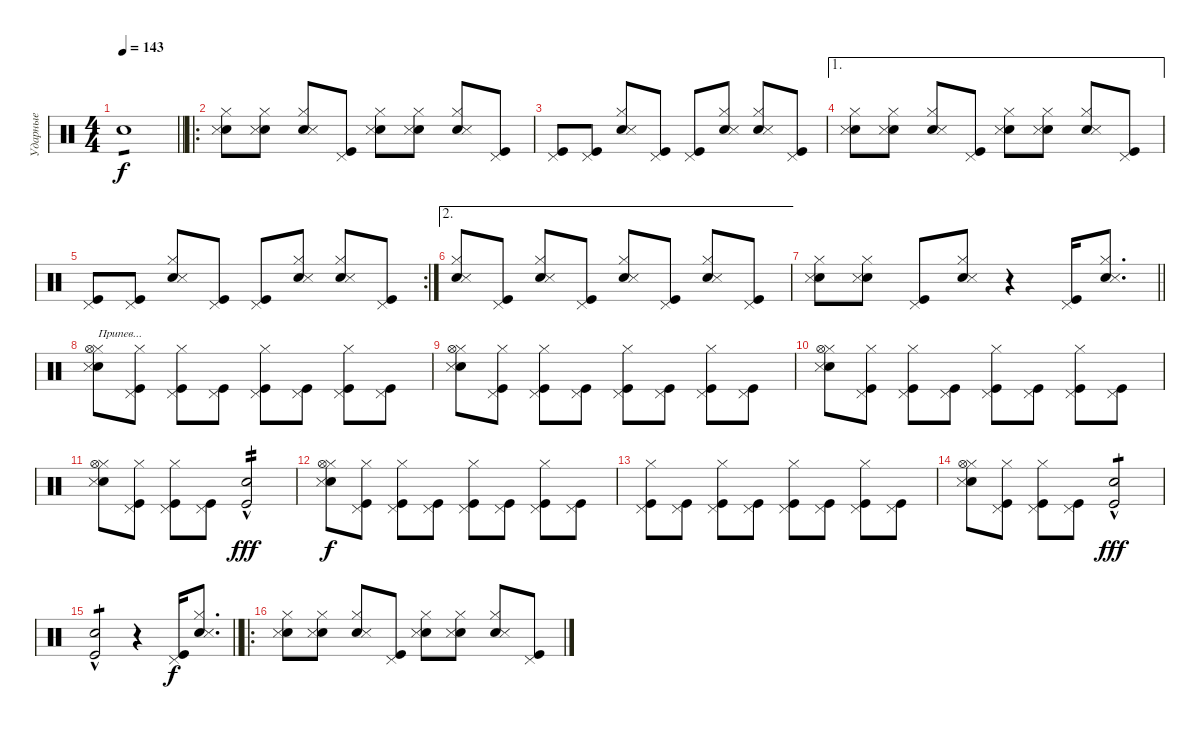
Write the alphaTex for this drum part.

\track ("Ударные" "Ударные") {instrument percussion}
\staff {score}
\articulation defaults
\ts (4 4)
\tempo 143
\clef neutral
\barLineRight lightlight
\ks c "Snare (hit) 2".1{tp 1 dy f}
|
\ro
("Snare (hit) 2" "Hi-Hat (closed)" "Snare (side stick) 3").8 ("Snare (hit) 2" "Hi-Hat (closed)" "Snare (side stick) 3").8 ("Snare (hit) 2" "Hi-Hat (closed)" "Snare (side stick) 3").8 ("Kick (hit)" "Pedal Hi-Hat (hit)").8 ("Snare (hit) 2" "Hi-Hat (closed)" "Snare (side stick) 3").8 ("Snare (hit) 2" "Hi-Hat (closed)" "Snare (side stick) 3").8 ("Snare (hit) 2" "Hi-Hat (closed)" "Snare (side stick) 3").8 ("Kick (hit)" "Pedal Hi-Hat (hit)").8 |
("Kick (hit)" "Pedal Hi-Hat (hit)").8 ("Kick (hit)" "Pedal Hi-Hat (hit)").8 ("Snare (hit) 2" "Hi-Hat (closed)" "Snare (side stick) 3").8 ("Kick (hit)" "Pedal Hi-Hat (hit)").8 ("Kick (hit)" "Pedal Hi-Hat (hit)").8 ("Snare (hit) 2" "Hi-Hat (closed)" "Snare (side stick) 3").8 ("Snare (hit) 2" "Hi-Hat (closed)" "Snare (side stick) 3").8 ("Kick (hit)" "Pedal Hi-Hat (hit)").8 |
\ae 1
("Snare (hit) 2" "Hi-Hat (closed)" "Snare (side stick) 3").8 ("Snare (hit) 2" "Hi-Hat (closed)" "Snare (side stick) 3").8 ("Snare (hit) 2" "Hi-Hat (closed)" "Snare (side stick) 3").8 ("Kick (hit)" "Pedal Hi-Hat (hit)").8 ("Snare (hit) 2" "Hi-Hat (closed)" "Snare (side stick) 3").8 ("Snare (hit) 2" "Hi-Hat (closed)" "Snare (side stick) 3").8 ("Snare (hit) 2" "Hi-Hat (closed)" "Snare (side stick) 3").8 ("Kick (hit)" "Pedal Hi-Hat (hit)").8 |
\rc 2
("Kick (hit)" "Pedal Hi-Hat (hit)").8 ("Kick (hit)" "Pedal Hi-Hat (hit)").8 ("Snare (hit) 2" "Hi-Hat (closed)" "Snare (side stick) 3").8 ("Kick (hit)" "Pedal Hi-Hat (hit)").8 ("Kick (hit)" "Pedal Hi-Hat (hit)").8 ("Snare (hit) 2" "Hi-Hat (closed)" "Snare (side stick) 3").8 ("Snare (hit) 2" "Hi-Hat (closed)" "Snare (side stick) 3").8 ("Kick (hit)" "Pedal Hi-Hat (hit)").8 |
\ae 2
("Snare (hit) 2" "Hi-Hat (closed)" "Snare (side stick) 3").8 ("Kick (hit)" "Pedal Hi-Hat (hit)").8 ("Snare (hit) 2" "Hi-Hat (closed)" "Snare (side stick) 3").8 ("Kick (hit)" "Pedal Hi-Hat (hit)").8 ("Snare (hit) 2" "Hi-Hat (closed)" "Snare (side stick) 3").8 ("Kick (hit)" "Pedal Hi-Hat (hit)").8 ("Snare (hit) 2" "Hi-Hat (closed)" "Snare (side stick) 3").8 ("Kick (hit)" "Pedal Hi-Hat (hit)").8 |
\barLineRight lightlight
("Snare (hit) 2" "Hi-Hat (closed)" "Snare (side stick) 3").8 ("Snare (hit) 2" "Hi-Hat (closed)" "Snare (side stick) 3").8 ("Kick (hit)" "Pedal Hi-Hat (hit)").8 ("Snare (hit) 2" "Hi-Hat (closed)" "Snare (side stick) 3").8 r.4 ("Kick (hit)" "Pedal Hi-Hat (hit)").16 ("Snare (hit) 2" "Hi-Hat (closed)" "Snare (side stick) 3").8{d} |
("Snare (hit) 2" "Hi-Hat (closed)" "Snare (side stick) 3" "Hi-Hat (open)").8{txt "Припев..."} ("Kick (hit)" "Pedal Hi-Hat (hit)" "Hi-Hat (closed)").8 ("Kick (hit)" "Pedal Hi-Hat (hit)" "Hi-Hat (closed)").8 ("Kick (hit)" "Pedal Hi-Hat (hit)").8 ("Kick (hit)" "Pedal Hi-Hat (hit)" "Hi-Hat (closed)").8 ("Kick (hit)" "Pedal Hi-Hat (hit)").8 ("Kick (hit)" "Pedal Hi-Hat (hit)" "Hi-Hat (closed)").8 ("Kick (hit)" "Pedal Hi-Hat (hit)").8 |
("Snare (hit) 2" "Hi-Hat (closed)" "Snare (side stick) 3" "Hi-Hat (open)").8 ("Kick (hit)" "Pedal Hi-Hat (hit)" "Hi-Hat (closed)").8 ("Kick (hit)" "Pedal Hi-Hat (hit)" "Hi-Hat (closed)").8 ("Kick (hit)" "Pedal Hi-Hat (hit)").8 ("Kick (hit)" "Pedal Hi-Hat (hit)" "Hi-Hat (closed)").8 ("Kick (hit)" "Pedal Hi-Hat (hit)").8 ("Kick (hit)" "Pedal Hi-Hat (hit)" "Hi-Hat (closed)").8 ("Kick (hit)" "Pedal Hi-Hat (hit)").8 |
("Snare (hit) 2" "Hi-Hat (closed)" "Snare (side stick) 3" "Hi-Hat (open)").8 ("Kick (hit)" "Pedal Hi-Hat (hit)" "Hi-Hat (closed)").8 ("Kick (hit)" "Pedal Hi-Hat (hit)" "Hi-Hat (closed)").8 ("Kick (hit)" "Pedal Hi-Hat (hit)").8 ("Kick (hit)" "Pedal Hi-Hat (hit)" "Hi-Hat (closed)").8 ("Kick (hit)" "Pedal Hi-Hat (hit)").8 ("Kick (hit)" "Pedal Hi-Hat (hit)" "Hi-Hat (closed)").8 ("Kick (hit)" "Pedal Hi-Hat (hit)").8 |
("Snare (hit) 2" "Hi-Hat (closed)" "Snare (side stick) 3" "Hi-Hat (open)").8 ("Kick (hit)" "Pedal Hi-Hat (hit)" "Hi-Hat (closed)").8 ("Kick (hit)" "Pedal Hi-Hat (hit)" "Hi-Hat (closed)").8 ("Kick (hit)" "Pedal Hi-Hat (hit)").8 ("Snare (hit) 2"{hac} "Kick (hit)"{hac}).2{tp 2 dy fff} |
("Snare (hit) 2" "Hi-Hat (closed)" "Snare (side stick) 3" "Hi-Hat (open)").8{dy f} ("Kick (hit)" "Pedal Hi-Hat (hit)" "Hi-Hat (closed)").8 ("Kick (hit)" "Pedal Hi-Hat (hit)" "Hi-Hat (closed)").8 ("Kick (hit)" "Pedal Hi-Hat (hit)").8 ("Kick (hit)" "Pedal Hi-Hat (hit)" "Hi-Hat (closed)").8 ("Kick (hit)" "Pedal Hi-Hat (hit)").8 ("Kick (hit)" "Pedal Hi-Hat (hit)" "Hi-Hat (closed)").8 ("Kick (hit)" "Pedal Hi-Hat (hit)").8 |
("Kick (hit)" "Pedal Hi-Hat (hit)" "Hi-Hat (closed)").8 ("Kick (hit)" "Pedal Hi-Hat (hit)").8 ("Kick (hit)" "Pedal Hi-Hat (hit)" "Hi-Hat (closed)").8 ("Kick (hit)" "Pedal Hi-Hat (hit)").8 ("Kick (hit)" "Pedal Hi-Hat (hit)" "Hi-Hat (closed)").8 ("Kick (hit)" "Pedal Hi-Hat (hit)").8 ("Kick (hit)" "Pedal Hi-Hat (hit)" "Hi-Hat (closed)").8 ("Kick (hit)" "Pedal Hi-Hat (hit)").8 |
("Snare (hit) 2" "Hi-Hat (closed)" "Snare (side stick) 3" "Hi-Hat (open)").8 ("Kick (hit)" "Pedal Hi-Hat (hit)" "Hi-Hat (closed)").8 ("Kick (hit)" "Pedal Hi-Hat (hit)" "Hi-Hat (closed)").8 ("Kick (hit)" "Pedal Hi-Hat (hit)").8 ("Snare (hit) 2"{hac} "Kick (hit)"{hac}).2{tp 1 dy fff} |
\barLineRight lightlight
("Snare (hit) 2"{hac} "Kick (hit)"{hac}).2{tp 1} r.4 ("Kick (hit)" "Pedal Hi-Hat (hit)").16{dy f} ("Snare (hit) 2" "Hi-Hat (closed)" "Snare (side stick) 3").8{d} |
\ro
("Snare (hit) 2" "Hi-Hat (closed)" "Snare (side stick) 3").8 ("Snare (hit) 2" "Hi-Hat (closed)" "Snare (side stick) 3").8 ("Snare (hit) 2" "Hi-Hat (closed)" "Snare (side stick) 3").8 ("Kick (hit)" "Pedal Hi-Hat (hit)").8 ("Snare (hit) 2" "Hi-Hat (closed)" "Snare (side stick) 3").8 ("Snare (hit) 2" "Hi-Hat (closed)" "Snare (side stick) 3").8 ("Snare (hit) 2" "Hi-Hat (closed)" "Snare (side stick) 3").8 ("Kick (hit)" "Pedal Hi-Hat (hit)").8
